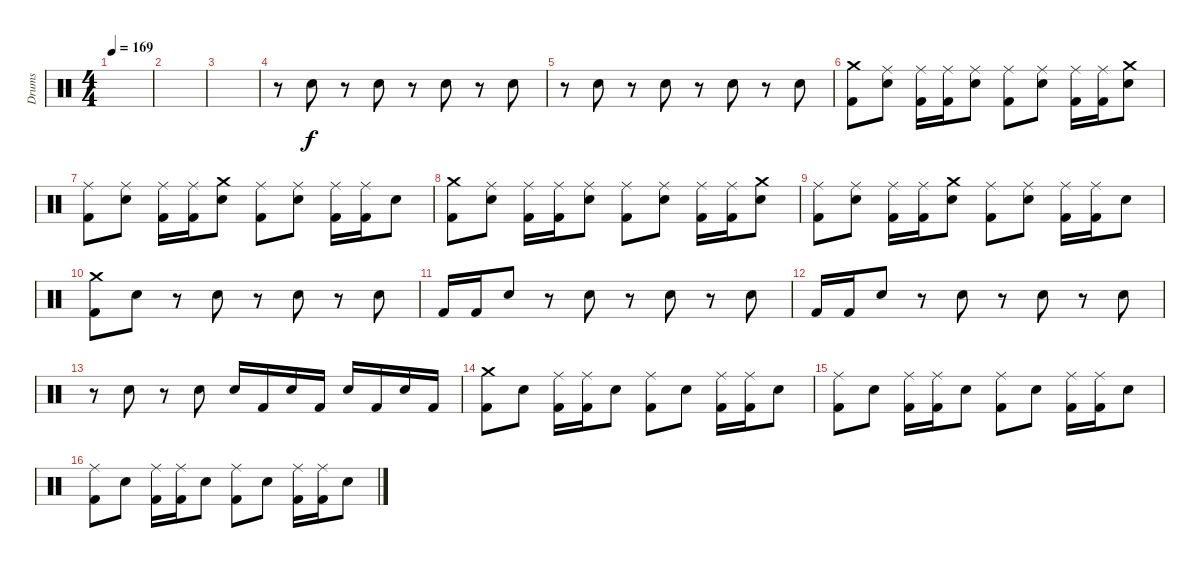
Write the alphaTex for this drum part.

\track ("Drums" "Drums") {instrument percussion}
\staff {score}
\articulation defaults
\ts (4 4)
\tempo 169
\clef neutral
\ks c
|
|
|
r.8 "Electric Snare (hit)".8 r.8 "Electric Snare (hit)".8 r.8 "Electric Snare (hit)".8 r.8 "Electric Snare (hit)".8 |
r.8 "Electric Snare (hit)".8 r.8 "Electric Snare (hit)".8 r.8 "Electric Snare (hit)".8 r.8 "Electric Snare (hit)".8 |
("Crash medium (hit)" "Kick (hit) 2").8 ("Ride (middle)" "Electric Snare (hit)").8 ("Ride (middle)" "Kick (hit) 2").16 ("Ride (middle)" "Kick (hit) 2").16 ("Ride (middle)" "Electric Snare (hit)").8 ("Ride (middle)" "Kick (hit) 2").8 ("Ride (middle)" "Electric Snare (hit)").8 ("Ride (middle)" "Kick (hit) 2").16 ("Ride (middle)" "Kick (hit) 2").16 ("Crash medium (hit)" "Electric Snare (hit)").8 |
("Ride (middle)" "Kick (hit) 2").8 ("Ride (middle)" "Electric Snare (hit)").8 ("Ride (middle)" "Kick (hit) 2").16 ("Ride (middle)" "Kick (hit) 2").16 ("Crash medium (hit)" "Electric Snare (hit)").8 ("Ride (middle)" "Kick (hit) 2").8 ("Ride (middle)" "Electric Snare (hit)").8 ("Ride (middle)" "Kick (hit) 2").16 ("Ride (middle)" "Kick (hit) 2").16 "Electric Snare (hit)".8 |
("Crash medium (hit)" "Kick (hit) 2").8 ("Ride (middle)" "Electric Snare (hit)").8 ("Ride (middle)" "Kick (hit) 2").16 ("Ride (middle)" "Kick (hit) 2").16 ("Ride (middle)" "Electric Snare (hit)").8 ("Ride (middle)" "Kick (hit) 2").8 ("Ride (middle)" "Electric Snare (hit)").8 ("Ride (middle)" "Kick (hit) 2").16 ("Ride (middle)" "Kick (hit) 2").16 ("Crash medium (hit)" "Electric Snare (hit)").8 |
("Ride (middle)" "Kick (hit) 2").8 ("Ride (middle)" "Electric Snare (hit)").8 ("Ride (middle)" "Kick (hit) 2").16 ("Ride (middle)" "Kick (hit) 2").16 ("Crash medium (hit)" "Electric Snare (hit)").8 ("Ride (middle)" "Kick (hit) 2").8 ("Ride (middle)" "Electric Snare (hit)").8 ("Ride (middle)" "Kick (hit) 2").16 ("Ride (middle)" "Kick (hit) 2").16 "Electric Snare (hit)".8 |
("Crash medium (hit)" "Kick (hit) 2").8 "Electric Snare (hit)".8 r.8 "Electric Snare (hit)".8 r.8 "Electric Snare (hit)".8 r.8 "Electric Snare (hit)".8 |
"Kick (hit) 2".16 "Kick (hit) 2".16 "Electric Snare (hit)".8 r.8 "Electric Snare (hit)".8 r.8 "Electric Snare (hit)".8 r.8 "Electric Snare (hit)".8 |
"Kick (hit) 2".16 "Kick (hit) 2".16 "Electric Snare (hit)".8 r.8 "Electric Snare (hit)".8 r.8 "Electric Snare (hit)".8 r.8 "Electric Snare (hit)".8 |
r.8 "Electric Snare (hit)".8 r.8 "Electric Snare (hit)".8 "Electric Snare (hit)".16 "Kick (hit) 2".16 "Electric Snare (hit)".16 "Kick (hit) 2".16 "Electric Snare (hit)".16 "Kick (hit) 2".16 "Electric Snare (hit)".16 "Kick (hit) 2".16 |
("Crash medium (hit)" "Kick (hit) 2").8 "Electric Snare (hit)".8 ("Ride (middle)" "Kick (hit) 2").16 ("Ride (middle)" "Kick (hit) 2").16 "Electric Snare (hit)".8 ("Ride (middle)" "Kick (hit) 2").8 "Electric Snare (hit)".8 ("Ride (middle)" "Kick (hit) 2").16 ("Ride (middle)" "Kick (hit) 2").16 "Electric Snare (hit)".8 |
("Ride (middle)" "Kick (hit) 2").8 "Electric Snare (hit)".8 ("Ride (middle)" "Kick (hit) 2").16 ("Ride (middle)" "Kick (hit) 2").16 "Electric Snare (hit)".8 ("Ride (middle)" "Kick (hit) 2").8 "Electric Snare (hit)".8 ("Ride (middle)" "Kick (hit) 2").16 ("Ride (middle)" "Kick (hit) 2").16 "Electric Snare (hit)".8 |
("Ride (middle)" "Kick (hit) 2").8 "Electric Snare (hit)".8 ("Ride (middle)" "Kick (hit) 2").16 ("Ride (middle)" "Kick (hit) 2").16 "Electric Snare (hit)".8 ("Ride (middle)" "Kick (hit) 2").8 "Electric Snare (hit)".8 ("Ride (middle)" "Kick (hit) 2").16 ("Ride (middle)" "Kick (hit) 2").16 "Electric Snare (hit)".8
